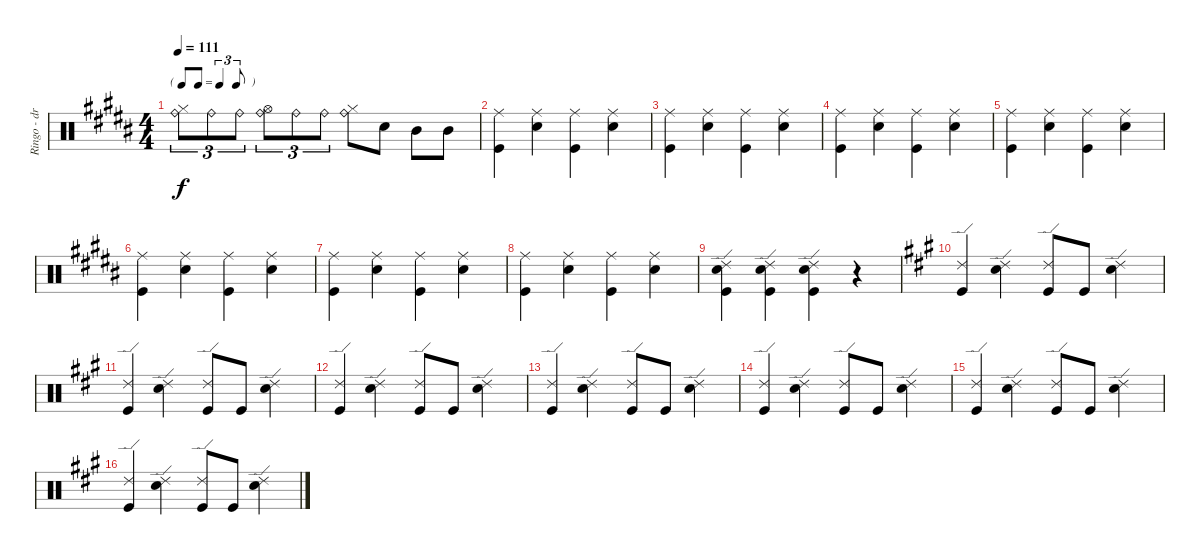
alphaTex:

\track ("Ringo - drums" "Ringo - dr") {instrument percussion}
\staff {score}
\articulation defaults
\ts (4 4)
\tf triplet8th
\tempo 111
\clef neutral
\ks b
("Hi-Hat (closed)" "Ride (bell)").8{tu (3 2) dy f} "Ride (bell)".8{tu (3 2)} "Ride (bell)".8{tu (3 2)} ("Hi-Hat (open)" "Ride (bell)").8{tu (3 2)} "Ride (bell)".8{tu (3 2)} "Ride (bell)".8{tu (3 2)} ("Hi-Hat (closed)" "Ride (bell)").8 "Snare (hit) 2".8 "Mid Tom (hit)".8 "Mid Tom (hit)".8 |
("Ride (middle)" "Kick (hit)").4 ("Ride (middle)" "Snare (hit) 2").4 ("Ride (middle)" "Kick (hit)").4 ("Ride (middle)" "Snare (hit) 2").4 |
("Ride (middle)" "Kick (hit)").4 ("Ride (middle)" "Snare (hit) 2").4 ("Ride (middle)" "Kick (hit)").4 ("Ride (middle)" "Snare (hit) 2").4 |
("Ride (middle)" "Kick (hit)").4 ("Ride (middle)" "Snare (hit) 2").4 ("Ride (middle)" "Kick (hit)").4 ("Ride (middle)" "Snare (hit) 2").4 |
("Ride (middle)" "Kick (hit)").4 ("Ride (middle)" "Snare (hit) 2").4 ("Ride (middle)" "Kick (hit)").4 ("Ride (middle)" "Snare (hit) 2").4 |
("Ride (middle)" "Kick (hit)").4 ("Ride (middle)" "Snare (hit) 2").4 ("Ride (middle)" "Kick (hit)").4 ("Ride (middle)" "Snare (hit) 2").4 |
("Ride (middle)" "Kick (hit)").4 ("Ride (middle)" "Snare (hit) 2").4 ("Ride (middle)" "Kick (hit)").4 ("Ride (middle)" "Snare (hit) 2").4 |
("Ride (middle)" "Kick (hit)").4 ("Ride (middle)" "Snare (hit) 2").4 ("Ride (middle)" "Kick (hit)").4 ("Ride (middle)" "Snare (hit) 2").4 |
("Ride (edge) 2" "Snare (hit) 2" "Kick (hit)").4 ("Ride (edge) 2" "Snare (hit) 2" "Kick (hit)").4 ("Ride (edge) 2" "Snare (hit) 2" "Kick (hit)").4 r.4 |
\ks a
("Ride (edge) 2" "Kick (hit)").4 ("Ride (edge) 2" "Snare (hit) 2").4 ("Ride (edge) 2" "Kick (hit)").8 "Kick (hit)".8 ("Ride (edge) 2" "Snare (hit) 2").4 |
("Ride (edge) 2" "Kick (hit)").4 ("Ride (edge) 2" "Snare (hit) 2").4 ("Ride (edge) 2" "Kick (hit)").8 "Kick (hit)".8 ("Ride (edge) 2" "Snare (hit) 2").4 |
("Ride (edge) 2" "Kick (hit)").4 ("Ride (edge) 2" "Snare (hit) 2").4 ("Ride (edge) 2" "Kick (hit)").8 "Kick (hit)".8 ("Ride (edge) 2" "Snare (hit) 2").4 |
("Ride (edge) 2" "Kick (hit)").4 ("Ride (edge) 2" "Snare (hit) 2").4 ("Ride (edge) 2" "Kick (hit)").8 "Kick (hit)".8 ("Ride (edge) 2" "Snare (hit) 2").4 |
("Ride (edge) 2" "Kick (hit)").4 ("Ride (edge) 2" "Snare (hit) 2").4 ("Ride (edge) 2" "Kick (hit)").8 "Kick (hit)".8 ("Ride (edge) 2" "Snare (hit) 2").4 |
("Ride (edge) 2" "Kick (hit)").4 ("Ride (edge) 2" "Snare (hit) 2").4 ("Ride (edge) 2" "Kick (hit)").8 "Kick (hit)".8 ("Ride (edge) 2" "Snare (hit) 2").4 |
("Ride (edge) 2" "Kick (hit)").4 ("Ride (edge) 2" "Snare (hit) 2").4 ("Ride (edge) 2" "Kick (hit)").8 "Kick (hit)".8 ("Ride (edge) 2" "Snare (hit) 2").4
